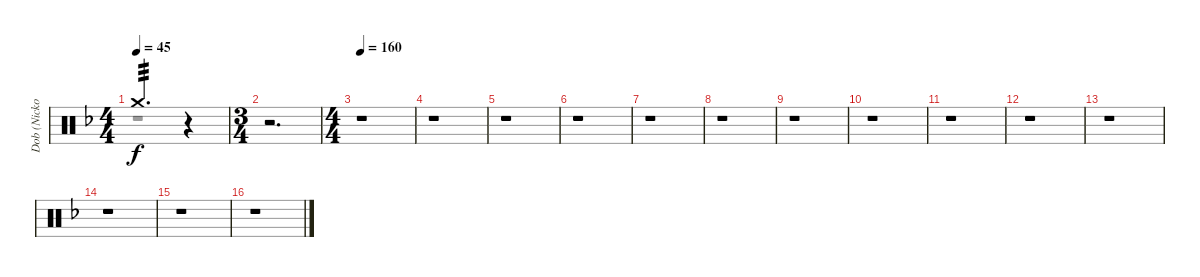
\track ("Dob (Nicko McBrain)" "Dob (Nicko") {instrument percussion}
\staff {score}
\articulation defaults
\voice
\ts (4 4)
\tempo 45
\clef neutral
\ks f "Crash medium (hit)".2{d tp 3 dy f}
r.4 |
\ts (3 4)
r.2{d} |
\ts (4 4)
\tempo 160
r.1 |
r.1 |
r.1 |
r.1 |
r.1 |
r.1 |
r.1 |
r.1 |
r.1 |
r.1 |
r.1 |
r.1 |
r.1 |
r.1
\voice
\clef neutral
\ottava regular
\simile none
\ks f
r.1{dy f} |
r.2{d} |
r.1 |
r.1 |
r.1 |
r.1 |
r.1 |
r.1 |
r.1 |
r.1 |
r.1 |
r.1 |
r.1 |
r.1 |
r.1 |
r.1
